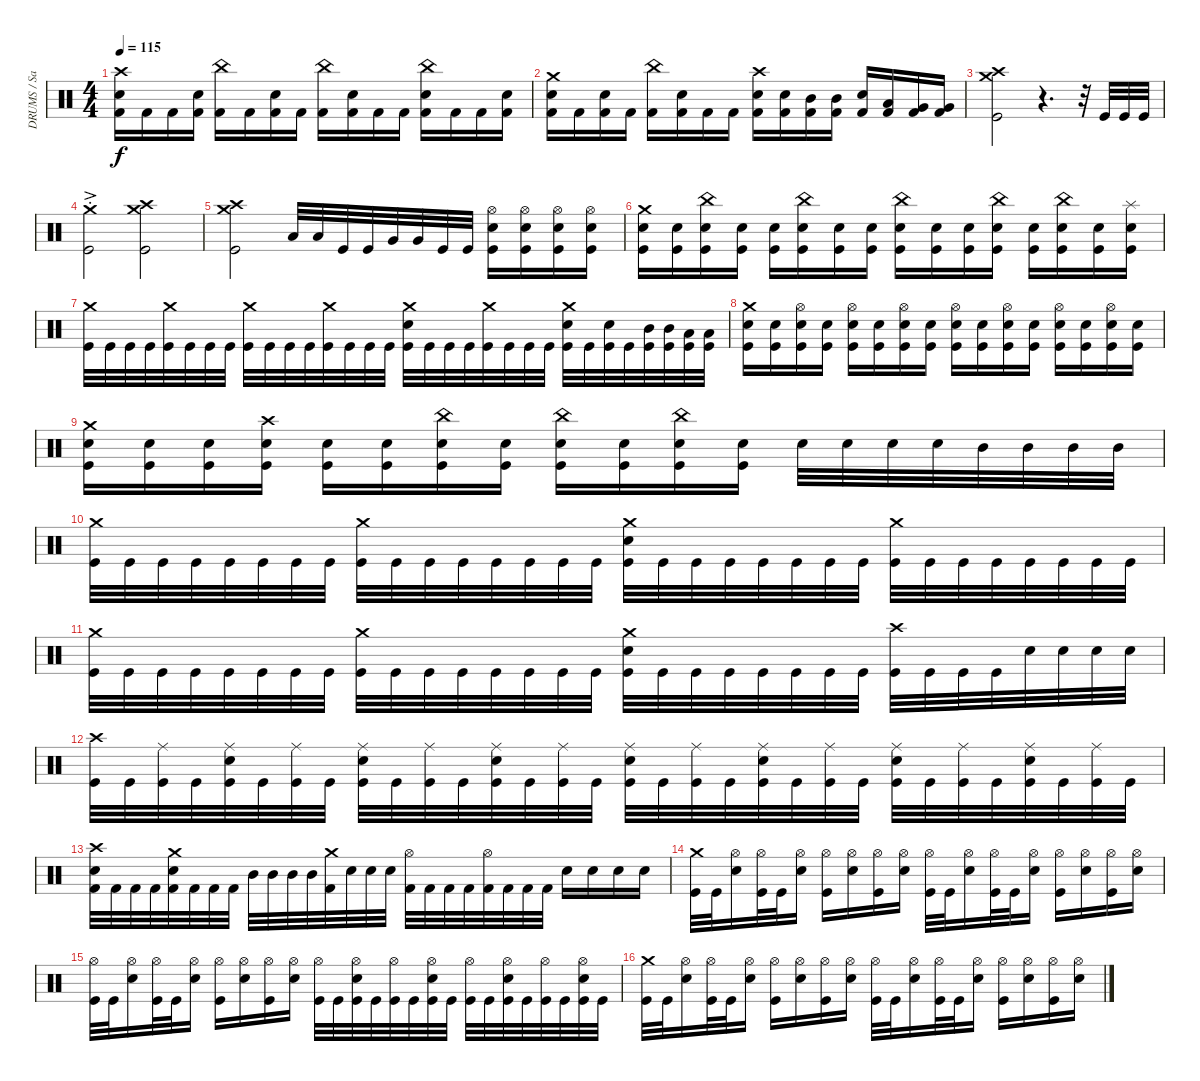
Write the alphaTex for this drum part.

\track ("DRUMS / Sasha" "DRUMS / Sa") {instrument percussion}
\staff {score}
\articulation defaults
\ts (4 4)
\tempo 115
\clef neutral
\ks c
("Crash high (hit)" "Electric Snare (hit)" "Kick (hit) 2").16{dy f} "Kick (hit) 2".16 "Kick (hit) 2".16 ("Electric Snare (hit)" "Kick (hit) 2").16 ("China (hit)" "Kick (hit) 2").16 "Kick (hit) 2".16 ("Electric Snare (hit)" "Kick (hit) 2").16 "Kick (hit) 2".16 ("China (hit)" "Kick (hit) 2").16 ("Electric Snare (hit)" "Kick (hit) 2").16 "Kick (hit) 2".16 "Kick (hit) 2".16 ("China (hit)" "Electric Snare (hit)" "Kick (hit) 2").16 "Kick (hit) 2".16 "Kick (hit) 2".16 ("Electric Snare (hit)" "Kick (hit) 2").16 |
("Crash medium (hit)" "Electric Snare (hit)" "Kick (hit) 2").16 "Kick (hit) 2".16 ("Electric Snare (hit)" "Kick (hit) 2").16 "Kick (hit) 2".16 ("China (hit)" "Kick (hit) 2").16 ("Electric Snare (hit)" "Kick (hit) 2").16 "Kick (hit) 2".16 "Kick (hit) 2".16 ("Crash high (hit)" "Electric Snare (hit)" "Kick (hit) 2").16 ("Electric Snare (hit)" "Kick (hit) 2").16 ("Mid Tom (hit)" "Kick (hit) 2").16 ("Mid Tom (hit)" "Kick (hit) 2").16 ("Electric Snare (hit)" "Kick (hit) 2").16 ("Low Tom (hit)" "Kick (hit) 2").16 ("Very Low Tom (hit)" "Kick (hit) 2").16 ("Very Low Tom (hit)" "Kick (hit) 2").16 |
("Crash medium (hit)" "Crash high (hit)" "Kick (hit)").2 r.4{d} r.32 "Kick (hit)".32 "Kick (hit)".32 "Kick (hit)".32 |
("Kick (hit)" "Crash medium (hit)"{ac st}).2 ("Crash high (hit)" "Crash medium (hit)" "Kick (hit)").2 |
("Crash medium (hit)" "Crash high (hit)" "Kick (hit)").2 "Low Tom (hit)".32 "Low Tom (hit)".32 "Kick (hit)".32 "Kick (hit)".32 "Very Low Tom (hit)".32 "Very Low Tom (hit)".32 "Kick (hit)".32 "Kick (hit)".32 ("Snare (hit) 2" "Kick (hit)" "Hi-Hat (open)").16 ("Hi-Hat (open)" "Snare (hit) 2" "Kick (hit)").16 ("Snare (hit) 2" "Kick (hit)" "Hi-Hat (open)").16 ("Hi-Hat (open)" "Snare (hit) 2" "Kick (hit)").16 |
("Crash medium (hit)" "Kick (hit)" "Snare (hit) 2").16 ("Kick (hit)" "Snare (hit) 2").16 ("China (hit)" "Snare (hit) 2" "Kick (hit)").16 ("Snare (hit) 2" "Kick (hit)").16 ("Snare (hit) 2" "Kick (hit)").16 ("China (hit)" "Snare (hit) 2" "Kick (hit)").16 ("Snare (hit) 2" "Kick (hit)").16 ("Snare (hit) 2" "Kick (hit)").16 ("China (hit)" "Snare (hit) 2" "Kick (hit)").16 ("Snare (hit) 2" "Kick (hit)").16 ("Snare (hit) 2" "Kick (hit)").16 ("China (hit)" "Snare (hit) 2" "Kick (hit)").16 ("Snare (hit) 2" "Kick (hit)").16 ("China (hit)" "Snare (hit) 2" "Kick (hit)").16 ("Snare (hit) 2" "Kick (hit)").16 ("Splash (hit)" "Snare (hit) 2" "Kick (hit)").16 |
("Crash medium (hit)" "Kick (hit)").32 "Kick (hit)".32 "Kick (hit)".32 "Kick (hit)".32 ("Crash medium (hit)" "Kick (hit)").32 "Kick (hit)".32 "Kick (hit)".32 "Kick (hit)".32 ("Crash medium (hit)" "Kick (hit)").32 "Kick (hit)".32 "Kick (hit)".32 "Kick (hit)".32 ("Crash medium (hit)" "Kick (hit)").32 "Kick (hit)".32 "Kick (hit)".32 "Kick (hit)".32 ("Crash medium (hit)" "Snare (hit) 2" "Kick (hit)").32 "Kick (hit)".32 "Kick (hit)".32 "Kick (hit)".32 ("Crash medium (hit)" "Kick (hit)").32 "Kick (hit)".32 "Kick (hit)".32 "Kick (hit)".32 ("Crash medium (hit)" "Snare (hit) 2" "Kick (hit)").32 "Kick (hit)".32 ("Snare (hit) 2" "Kick (hit)").32 "Kick (hit)".32 ("Mid Tom (hit)" "Kick (hit)").32 ("Mid Tom (hit)" "Kick (hit)").32 ("Low Tom (hit)" "Kick (hit)").32 ("Low Tom (hit)" "Kick (hit)").32 |
("Crash medium (hit)" "Snare (hit) 2" "Kick (hit)").16 ("Snare (hit) 2" "Kick (hit)").16 ("Hi-Hat (open)" "Snare (hit) 2" "Kick (hit)").16 ("Snare (hit) 2" "Kick (hit)").16 ("Hi-Hat (open)" "Snare (hit) 2" "Kick (hit)").16 ("Snare (hit) 2" "Kick (hit)").16 ("Hi-Hat (open)" "Snare (hit) 2" "Kick (hit)").16 ("Snare (hit) 2" "Kick (hit)").16 ("Hi-Hat (open)" "Snare (hit) 2" "Kick (hit)").16 ("Snare (hit) 2" "Kick (hit)").16 ("Hi-Hat (open)" "Snare (hit) 2" "Kick (hit)").16 ("Snare (hit) 2" "Kick (hit)").16 ("Hi-Hat (open)" "Snare (hit) 2" "Kick (hit)").16 ("Snare (hit) 2" "Kick (hit)").16 ("Hi-Hat (open)" "Snare (hit) 2" "Kick (hit)").16 ("Snare (hit) 2" "Kick (hit)").16 |
("Crash medium (hit)" "Snare (hit) 2" "Kick (hit)").16 ("Snare (hit) 2" "Kick (hit)").16 ("Snare (hit) 2" "Kick (hit)").16 ("Crash high (hit)" "Snare (hit) 2" "Kick (hit)").16 ("Snare (hit) 2" "Kick (hit)").16 ("Snare (hit) 2" "Kick (hit)").16 ("China (hit)" "Snare (hit) 2" "Kick (hit)").16 ("Snare (hit) 2" "Kick (hit)").16 ("China (hit)" "Snare (hit) 2" "Kick (hit)").16 ("Snare (hit) 2" "Kick (hit)").16 ("China (hit)" "Snare (hit) 2" "Kick (hit)").16 ("Snare (hit) 2" "Kick (hit)").16 "Snare (hit) 2".32 "Snare (hit) 2".32 "Snare (hit) 2".32 "Snare (hit) 2".32 "Mid Tom (hit)".32 "Mid Tom (hit)".32 "Mid Tom (hit)".32 "Mid Tom (hit)".32 |
("Crash medium (hit)" "Kick (hit)").32 "Kick (hit)".32 "Kick (hit)".32 "Kick (hit)".32 "Kick (hit)".32 "Kick (hit)".32 "Kick (hit)".32 "Kick (hit)".32 ("Crash medium (hit)" "Kick (hit)").32 "Kick (hit)".32 "Kick (hit)".32 "Kick (hit)".32 "Kick (hit)".32 "Kick (hit)".32 "Kick (hit)".32 "Kick (hit)".32 ("Crash medium (hit)" "Snare (hit) 2" "Kick (hit)").32 "Kick (hit)".32 "Kick (hit)".32 "Kick (hit)".32 "Kick (hit)".32 "Kick (hit)".32 "Kick (hit)".32 "Kick (hit)".32 ("Crash medium (hit)" "Kick (hit)").32 "Kick (hit)".32 "Kick (hit)".32 "Kick (hit)".32 "Kick (hit)".32 "Kick (hit)".32 "Kick (hit)".32 "Kick (hit)".32 |
("Crash medium (hit)" "Kick (hit)").32 "Kick (hit)".32 "Kick (hit)".32 "Kick (hit)".32 "Kick (hit)".32 "Kick (hit)".32 "Kick (hit)".32 "Kick (hit)".32 ("Crash medium (hit)" "Kick (hit)").32 "Kick (hit)".32 "Kick (hit)".32 "Kick (hit)".32 "Kick (hit)".32 "Kick (hit)".32 "Kick (hit)".32 "Kick (hit)".32 ("Crash medium (hit)" "Snare (hit) 2" "Kick (hit)").32 "Kick (hit)".32 "Kick (hit)".32 "Kick (hit)".32 "Kick (hit)".32 "Kick (hit)".32 "Kick (hit)".32 "Kick (hit)".32 ("Crash high (hit)" "Kick (hit)").32 "Kick (hit)".32 "Kick (hit)".32 "Kick (hit)".32 "Electric Snare (hit)".32 "Electric Snare (hit)".32 "Electric Snare (hit)".32 "Electric Snare (hit)".32 |
("Crash high (hit)" "Kick (hit)").32 "Kick (hit)".32 ("Kick (hit)" "Ride (middle)").32 "Kick (hit)".32 ("Snare (hit) 2" "Kick (hit)" "Ride (middle)").32 "Kick (hit)".32 ("Kick (hit)" "Ride (middle)").32 "Kick (hit)".32 ("Snare (hit) 2" "Kick (hit)" "Ride (middle)").32 "Kick (hit)".32 ("Kick (hit)" "Ride (middle)").32 "Kick (hit)".32 ("Snare (hit) 2" "Kick (hit)" "Ride (middle)").32 "Kick (hit)".32 ("Kick (hit)" "Ride (middle)").32 "Kick (hit)".32 ("Snare (hit) 2" "Kick (hit)" "Ride (middle)").32 "Kick (hit)".32 ("Kick (hit)" "Ride (middle)").32 "Kick (hit)".32 ("Snare (hit) 2" "Kick (hit)" "Ride (middle)").32 "Kick (hit)".32 ("Kick (hit)" "Ride (middle)").32 "Kick (hit)".32 ("Snare (hit) 2" "Kick (hit)" "Ride (middle)").32 "Kick (hit)".32 ("Kick (hit)" "Ride (middle)").32 "Kick (hit)".32 ("Snare (hit) 2" "Kick (hit)" "Ride (middle)").32 "Kick (hit)".32 ("Kick (hit)" "Ride (middle)").32 "Kick (hit)".32 |
("Crash high (hit)" "Electric Snare (hit)" "Kick (hit) 2").32 "Kick (hit) 2".32 "Kick (hit) 2".32 "Kick (hit) 2".32 ("Crash medium (hit)" "Electric Snare (hit)" "Kick (hit) 2").32 "Kick (hit) 2".32 "Kick (hit) 2".32 "Kick (hit) 2".32 "Mid Tom (hit)".32 "Mid Tom (hit)".32 "Mid Tom (hit)".32 "Mid Tom (hit)".32 ("Crash medium (hit)" "Kick (hit) 2").32 "Electric Snare (hit)".32 "Electric Snare (hit)".32 "Electric Snare (hit)".32 ("Hi-Hat (open)" "Kick (hit) 2").32 "Kick (hit) 2".32 "Kick (hit) 2".32 "Kick (hit) 2".32 ("Hi-Hat (open)" "Kick (hit) 2").32 "Kick (hit) 2".32 "Kick (hit) 2".32 "Kick (hit) 2".32 "Electric Snare (hit)".16 "Electric Snare (hit)".16 "Electric Snare (hit)".16 "Electric Snare (hit)".16 |
("Kick (hit)" "Crash medium (hit)").32 "Kick (hit)".32 ("Snare (hit) 2" "Hi-Hat (open)").16 ("Kick (hit)" "Hi-Hat (open)").32 "Kick (hit)".32 ("Snare (hit) 2" "Hi-Hat (open)").16 ("Kick (hit)" "Hi-Hat (open)").16 ("Snare (hit) 2" "Hi-Hat (open)").16 ("Kick (hit)" "Hi-Hat (open)").16 ("Snare (hit) 2" "Hi-Hat (open)").16 ("Kick (hit)" "Hi-Hat (open)").32 "Kick (hit)".32 ("Snare (hit) 2" "Hi-Hat (open)").16 ("Kick (hit)" "Hi-Hat (open)").32 "Kick (hit)".32 ("Snare (hit) 2" "Hi-Hat (open)").16 ("Kick (hit)" "Hi-Hat (open)").16 ("Snare (hit) 2" "Hi-Hat (open)").16 ("Kick (hit)" "Hi-Hat (open)").16 ("Snare (hit) 2" "Hi-Hat (open)").16 |
("Kick (hit)" "Hi-Hat (open)").32 "Kick (hit)".32 ("Snare (hit) 2" "Hi-Hat (open)").16 ("Kick (hit)" "Hi-Hat (open)").32 "Kick (hit)".32 ("Snare (hit) 2" "Hi-Hat (open)").16 ("Kick (hit)" "Hi-Hat (open)").16 ("Snare (hit) 2" "Hi-Hat (open)").16 ("Kick (hit)" "Hi-Hat (open)").16 ("Snare (hit) 2" "Hi-Hat (open)").16 ("Kick (hit)" "Hi-Hat (open)").32 "Kick (hit)".32 ("Hi-Hat (open)" "Kick (hit)" "Snare (hit) 2").32 "Kick (hit)".32 ("Kick (hit)" "Hi-Hat (open)").32 "Kick (hit)".32 ("Kick (hit)" "Hi-Hat (open)" "Snare (hit) 2").32 "Kick (hit)".32 ("Kick (hit)" "Hi-Hat (open)").32 "Kick (hit)".32 ("Kick (hit)" "Hi-Hat (open)" "Snare (hit) 2").32 "Kick (hit)".32 ("Kick (hit)" "Hi-Hat (open)").32 "Kick (hit)".32 ("Kick (hit)" "Hi-Hat (open)" "Snare (hit) 2").32 "Kick (hit)".32 |
("Kick (hit)" "Crash medium (hit)").32 "Kick (hit)".32 ("Snare (hit) 2" "Hi-Hat (open)").16 ("Kick (hit)" "Hi-Hat (open)").32 "Kick (hit)".32 ("Snare (hit) 2" "Hi-Hat (open)").16 ("Kick (hit)" "Hi-Hat (open)").16 ("Snare (hit) 2" "Hi-Hat (open)").16 ("Kick (hit)" "Hi-Hat (open)").16 ("Snare (hit) 2" "Hi-Hat (open)").16 ("Kick (hit)" "Hi-Hat (open)").32 "Kick (hit)".32 ("Snare (hit) 2" "Hi-Hat (open)").16 ("Kick (hit)" "Hi-Hat (open)").32 "Kick (hit)".32 ("Snare (hit) 2" "Hi-Hat (open)").16 ("Kick (hit)" "Hi-Hat (open)").16 ("Snare (hit) 2" "Hi-Hat (open)").16 ("Kick (hit)" "Hi-Hat (open)").16 ("Snare (hit) 2" "Hi-Hat (open)").16
